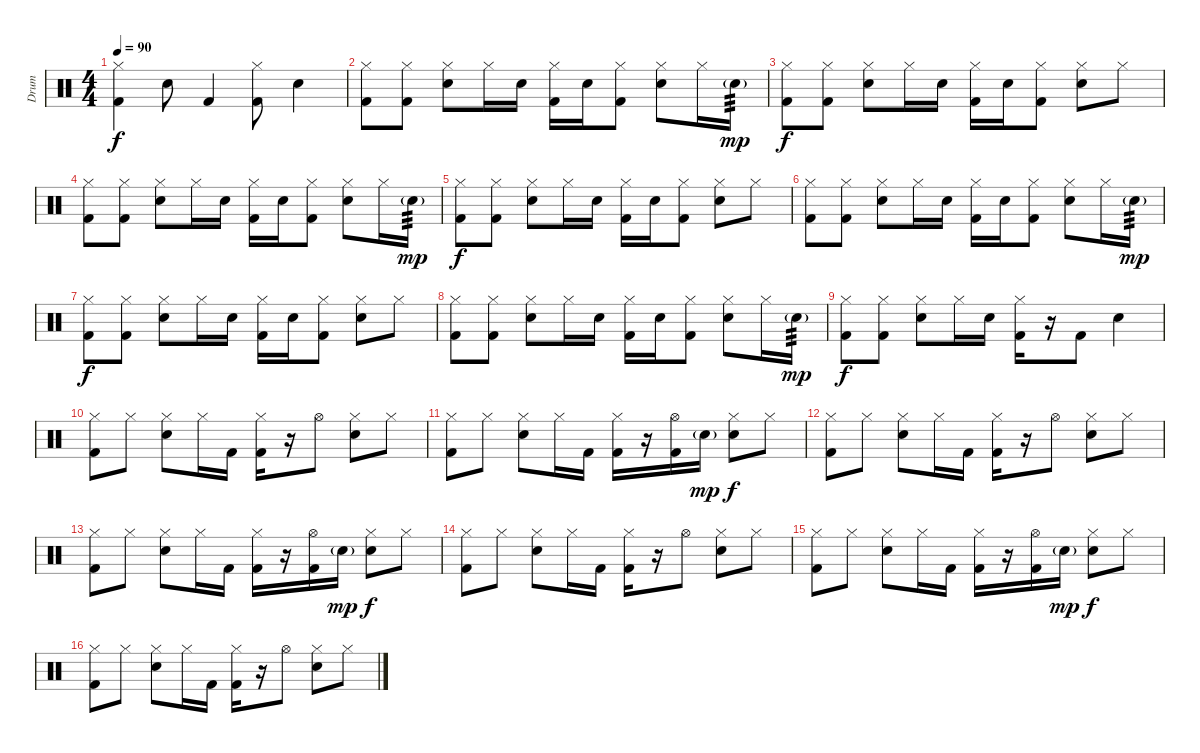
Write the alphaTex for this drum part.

\track ("Drum" "Drum") {instrument percussion}
\staff {score}
\articulation defaults
\ts (4 4)
\tempo 90
\clef neutral
\ks c
("Hi-Hat (closed)" "Kick (hit) 2").4{dy f} "Snare (hit) 2".8 "Kick (hit) 2".4 ("Hi-Hat (closed)" "Kick (hit) 2").8 "Snare (hit) 2".4 |
("Hi-Hat (closed)" "Kick (hit) 2").8 ("Hi-Hat (closed)" "Kick (hit) 2").8 ("Hi-Hat (closed)" "Snare (hit) 2").8 "Hi-Hat (closed)".16 "Snare (hit) 2".16 ("Hi-Hat (closed)" "Kick (hit) 2").16 "Snare (hit) 2".16 ("Hi-Hat (closed)" "Kick (hit) 2").8 ("Hi-Hat (closed)" "Snare (hit) 2").8 "Hi-Hat (closed)".16 "Snare (hit) 2"{g}.16{tp 3 dy mp} |
("Hi-Hat (closed)" "Kick (hit) 2").8{dy f} ("Hi-Hat (closed)" "Kick (hit) 2").8 ("Hi-Hat (closed)" "Snare (hit) 2").8 "Hi-Hat (closed)".16 "Snare (hit) 2".16 ("Hi-Hat (closed)" "Kick (hit) 2").16 "Snare (hit) 2".16 ("Hi-Hat (closed)" "Kick (hit) 2").8 ("Hi-Hat (closed)" "Snare (hit) 2").8 "Hi-Hat (closed)".8 |
("Hi-Hat (closed)" "Kick (hit) 2").8 ("Hi-Hat (closed)" "Kick (hit) 2").8 ("Hi-Hat (closed)" "Snare (hit) 2").8 "Hi-Hat (closed)".16 "Snare (hit) 2".16 ("Hi-Hat (closed)" "Kick (hit) 2").16 "Snare (hit) 2".16 ("Hi-Hat (closed)" "Kick (hit) 2").8 ("Hi-Hat (closed)" "Snare (hit) 2").8 "Hi-Hat (closed)".16 "Snare (hit) 2"{g}.16{tp 3 dy mp} |
("Hi-Hat (closed)" "Kick (hit) 2").8{dy f} ("Hi-Hat (closed)" "Kick (hit) 2").8 ("Hi-Hat (closed)" "Snare (hit) 2").8 "Hi-Hat (closed)".16 "Snare (hit) 2".16 ("Hi-Hat (closed)" "Kick (hit) 2").16 "Snare (hit) 2".16 ("Hi-Hat (closed)" "Kick (hit) 2").8 ("Hi-Hat (closed)" "Snare (hit) 2").8 "Hi-Hat (closed)".8 |
("Hi-Hat (closed)" "Kick (hit) 2").8 ("Hi-Hat (closed)" "Kick (hit) 2").8 ("Hi-Hat (closed)" "Snare (hit) 2").8 "Hi-Hat (closed)".16 "Snare (hit) 2".16 ("Hi-Hat (closed)" "Kick (hit) 2").16 "Snare (hit) 2".16 ("Hi-Hat (closed)" "Kick (hit) 2").8 ("Hi-Hat (closed)" "Snare (hit) 2").8 "Hi-Hat (closed)".16 "Snare (hit) 2"{g}.16{tp 3 dy mp} |
("Hi-Hat (closed)" "Kick (hit) 2").8{dy f} ("Hi-Hat (closed)" "Kick (hit) 2").8 ("Hi-Hat (closed)" "Snare (hit) 2").8 "Hi-Hat (closed)".16 "Snare (hit) 2".16 ("Hi-Hat (closed)" "Kick (hit) 2").16 "Snare (hit) 2".16 ("Hi-Hat (closed)" "Kick (hit) 2").8 ("Hi-Hat (closed)" "Snare (hit) 2").8 "Hi-Hat (closed)".8 |
("Hi-Hat (closed)" "Kick (hit) 2").8 ("Hi-Hat (closed)" "Kick (hit) 2").8 ("Hi-Hat (closed)" "Snare (hit) 2").8 "Hi-Hat (closed)".16 "Snare (hit) 2".16 ("Hi-Hat (closed)" "Kick (hit) 2").16 "Snare (hit) 2".16 ("Hi-Hat (closed)" "Kick (hit) 2").8 ("Hi-Hat (closed)" "Snare (hit) 2").8 "Hi-Hat (closed)".16 "Snare (hit) 2"{g}.16{tp 3 dy mp} |
("Hi-Hat (closed)" "Kick (hit) 2").8{dy f} ("Hi-Hat (closed)" "Kick (hit) 2").8 ("Hi-Hat (closed)" "Snare (hit) 2").8 "Hi-Hat (closed)".16 "Snare (hit) 2".16 ("Hi-Hat (closed)" "Kick (hit) 2").16 r.16 "Kick (hit) 2".8 "Snare (hit) 2".4 |
("Hi-Hat (closed)" "Kick (hit) 2").8 "Hi-Hat (closed)".8 ("Hi-Hat (closed)" "Snare (hit) 2").8 "Hi-Hat (closed)".16 "Kick (hit) 2".16 ("Hi-Hat (closed)" "Kick (hit) 2").16 r.16 "Hi-Hat (open)".8 ("Hi-Hat (closed)" "Snare (hit) 2").8 "Hi-Hat (closed)".8 |
("Hi-Hat (closed)" "Kick (hit) 2").8 "Hi-Hat (closed)".8 ("Hi-Hat (closed)" "Snare (hit) 2").8 "Hi-Hat (closed)".16 "Kick (hit) 2".16 ("Hi-Hat (closed)" "Kick (hit) 2").16 r.16 ("Hi-Hat (open)" "Kick (hit) 2").16 "Snare (hit) 2"{g}.16{dy mp} ("Hi-Hat (closed)" "Snare (hit) 2").8{dy f} "Hi-Hat (closed)".8 |
("Hi-Hat (closed)" "Kick (hit) 2").8 "Hi-Hat (closed)".8 ("Hi-Hat (closed)" "Snare (hit) 2").8 "Hi-Hat (closed)".16 "Kick (hit) 2".16 ("Hi-Hat (closed)" "Kick (hit) 2").16 r.16 "Hi-Hat (open)".8 ("Hi-Hat (closed)" "Snare (hit) 2").8 "Hi-Hat (closed)".8 |
("Hi-Hat (closed)" "Kick (hit) 2").8 "Hi-Hat (closed)".8 ("Hi-Hat (closed)" "Snare (hit) 2").8 "Hi-Hat (closed)".16 "Kick (hit) 2".16 ("Hi-Hat (closed)" "Kick (hit) 2").16 r.16 ("Hi-Hat (open)" "Kick (hit) 2").16 "Snare (hit) 2"{g}.16{dy mp} ("Hi-Hat (closed)" "Snare (hit) 2").8{dy f} "Hi-Hat (closed)".8 |
("Hi-Hat (closed)" "Kick (hit) 2").8 "Hi-Hat (closed)".8 ("Hi-Hat (closed)" "Snare (hit) 2").8 "Hi-Hat (closed)".16 "Kick (hit) 2".16 ("Hi-Hat (closed)" "Kick (hit) 2").16 r.16 "Hi-Hat (open)".8 ("Hi-Hat (closed)" "Snare (hit) 2").8 "Hi-Hat (closed)".8 |
("Hi-Hat (closed)" "Kick (hit) 2").8 "Hi-Hat (closed)".8 ("Hi-Hat (closed)" "Snare (hit) 2").8 "Hi-Hat (closed)".16 "Kick (hit) 2".16 ("Hi-Hat (closed)" "Kick (hit) 2").16 r.16 ("Hi-Hat (open)" "Kick (hit) 2").16 "Snare (hit) 2"{g}.16{dy mp} ("Hi-Hat (closed)" "Snare (hit) 2").8{dy f} "Hi-Hat (closed)".8 |
("Hi-Hat (closed)" "Kick (hit) 2").8 "Hi-Hat (closed)".8 ("Hi-Hat (closed)" "Snare (hit) 2").8 "Hi-Hat (closed)".16 "Kick (hit) 2".16 ("Hi-Hat (closed)" "Kick (hit) 2").16 r.16 "Hi-Hat (open)".8 ("Hi-Hat (closed)" "Snare (hit) 2").8 "Hi-Hat (closed)".8
